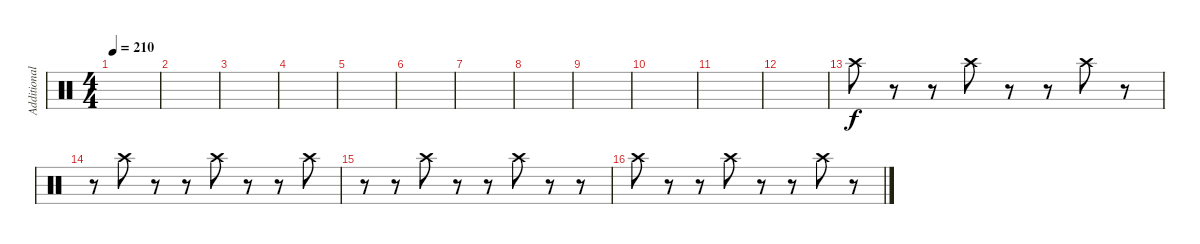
\track ("Additional drums" "Additional") {instrument percussion}
\staff {score}
\articulation defaults
\ts (4 4)
\tempo 210
\clef neutral
\ks c
|
|
|
|
|
|
|
|
|
|
|
|
"Crash high (hit)".8 r.8 r.8 "Crash high (hit)".8 r.8 r.8 "Crash high (hit)".8 r.8 |
r.8 "Crash high (hit)".8 r.8 r.8 "Crash high (hit)".8 r.8 r.8 "Crash high (hit)".8 |
r.8 r.8 "Crash high (hit)".8 r.8 r.8 "Crash high (hit)".8 r.8 r.8 |
"Crash high (hit)".8 r.8 r.8 "Crash high (hit)".8 r.8 r.8 "Crash high (hit)".8 r.8
